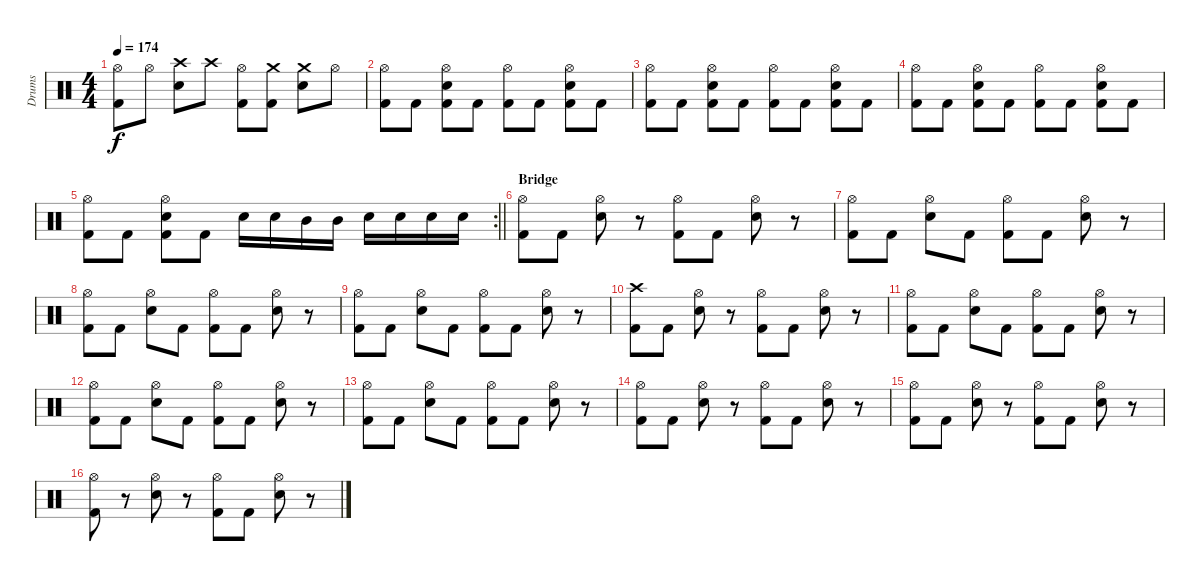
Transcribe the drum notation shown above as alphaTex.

\track ("Drums" "Drums") {instrument percussion}
\staff {score}
\articulation defaults
\ts (4 4)
\tempo 174
\clef neutral
\ks c
("Hi-Hat (open)" "Kick (hit) 2").8{dy f} "Hi-Hat (open)".8 ("Crash high (hit)" "Electric Snare (hit)").8 "Crash high (hit)".8 ("Hi-Hat (open)" "Kick (hit) 2").8 ("Crash medium (hit)" "Kick (hit) 2").8 ("Crash medium (hit)" "Electric Snare (hit)").8 "Hi-Hat (open)".8 |
("Hi-Hat (open)" "Kick (hit) 2").8 "Kick (hit) 2".8 ("Hi-Hat (open)" "Electric Snare (hit)" "Kick (hit) 2").8 "Kick (hit) 2".8 ("Hi-Hat (open)" "Kick (hit) 2").8 "Kick (hit) 2".8 ("Hi-Hat (open)" "Electric Snare (hit)" "Kick (hit) 2").8 "Kick (hit) 2".8 |
("Hi-Hat (open)" "Kick (hit) 2").8 "Kick (hit) 2".8 ("Hi-Hat (open)" "Electric Snare (hit)" "Kick (hit) 2").8 "Kick (hit) 2".8 ("Hi-Hat (open)" "Kick (hit) 2").8 "Kick (hit) 2".8 ("Hi-Hat (open)" "Electric Snare (hit)" "Kick (hit) 2").8 "Kick (hit) 2".8 |
("Hi-Hat (open)" "Kick (hit) 2").8 "Kick (hit) 2".8 ("Hi-Hat (open)" "Electric Snare (hit)" "Kick (hit) 2").8 "Kick (hit) 2".8 ("Hi-Hat (open)" "Kick (hit) 2").8 "Kick (hit) 2".8 ("Hi-Hat (open)" "Electric Snare (hit)" "Kick (hit) 2").8 "Kick (hit) 2".8 |
\rc 2
\barLineRight lightlight
("Hi-Hat (open)" "Kick (hit) 2").8 "Kick (hit) 2".8 ("Hi-Hat (open)" "Electric Snare (hit)" "Kick (hit) 2").8 "Kick (hit) 2".8 "Electric Snare (hit)".16 "Electric Snare (hit)".16 "Mid Tom (hit)".16 "Mid Tom (hit)".16 "Electric Snare (hit)".16 "Electric Snare (hit)".16 "Electric Snare (hit)".16 "Electric Snare (hit)".16 |
\section ("" "Bridge")
("Hi-Hat (open)" "Kick (hit) 2").8 "Kick (hit) 2".8 ("Hi-Hat (open)" "Electric Snare (hit)").8 r.8 ("Hi-Hat (open)" "Kick (hit) 2").8 "Kick (hit) 2".8 ("Hi-Hat (open)" "Electric Snare (hit)").8 r.8 |
("Hi-Hat (open)" "Kick (hit) 2").8 "Kick (hit) 2".8 ("Hi-Hat (open)" "Electric Snare (hit)").8 "Kick (hit) 2".8 ("Hi-Hat (open)" "Kick (hit) 2").8 "Kick (hit) 2".8 ("Hi-Hat (open)" "Electric Snare (hit)").8 r.8 |
("Hi-Hat (open)" "Kick (hit) 2").8 "Kick (hit) 2".8 ("Hi-Hat (open)" "Electric Snare (hit)").8 "Kick (hit) 2".8 ("Hi-Hat (open)" "Kick (hit) 2").8 "Kick (hit) 2".8 ("Hi-Hat (open)" "Electric Snare (hit)").8 r.8 |
("Hi-Hat (open)" "Kick (hit) 2").8 "Kick (hit) 2".8 ("Hi-Hat (open)" "Electric Snare (hit)").8 "Kick (hit) 2".8 ("Hi-Hat (open)" "Kick (hit) 2").8 "Kick (hit) 2".8 ("Hi-Hat (open)" "Electric Snare (hit)").8 r.8 |
("Crash high (hit)" "Kick (hit) 2").8 "Kick (hit) 2".8 ("Hi-Hat (open)" "Electric Snare (hit)").8 r.8 ("Hi-Hat (open)" "Kick (hit) 2").8 "Kick (hit) 2".8 ("Hi-Hat (open)" "Electric Snare (hit)").8 r.8 |
("Hi-Hat (open)" "Kick (hit) 2").8 "Kick (hit) 2".8 ("Hi-Hat (open)" "Electric Snare (hit)").8 "Kick (hit) 2".8 ("Hi-Hat (open)" "Kick (hit) 2").8 "Kick (hit) 2".8 ("Hi-Hat (open)" "Electric Snare (hit)").8 r.8 |
("Hi-Hat (open)" "Kick (hit) 2").8 "Kick (hit) 2".8 ("Hi-Hat (open)" "Electric Snare (hit)").8 "Kick (hit) 2".8 ("Hi-Hat (open)" "Kick (hit) 2").8 "Kick (hit) 2".8 ("Hi-Hat (open)" "Electric Snare (hit)").8 r.8 |
("Hi-Hat (open)" "Kick (hit) 2").8 "Kick (hit) 2".8 ("Hi-Hat (open)" "Electric Snare (hit)").8 "Kick (hit) 2".8 ("Hi-Hat (open)" "Kick (hit) 2").8 "Kick (hit) 2".8 ("Hi-Hat (open)" "Electric Snare (hit)").8 r.8 |
("Hi-Hat (open)" "Kick (hit) 2").8 "Kick (hit) 2".8 ("Hi-Hat (open)" "Electric Snare (hit)").8 r.8 ("Hi-Hat (open)" "Kick (hit) 2").8 "Kick (hit) 2".8 ("Hi-Hat (open)" "Electric Snare (hit)").8 r.8 |
("Hi-Hat (open)" "Kick (hit) 2").8 "Kick (hit) 2".8 ("Hi-Hat (open)" "Electric Snare (hit)").8 r.8 ("Hi-Hat (open)" "Kick (hit) 2").8 "Kick (hit) 2".8 ("Hi-Hat (open)" "Electric Snare (hit)").8 r.8 |
("Hi-Hat (open)" "Kick (hit) 2").8 r.8 ("Hi-Hat (open)" "Electric Snare (hit)").8 r.8 ("Hi-Hat (open)" "Kick (hit) 2").8 "Kick (hit) 2".8 ("Hi-Hat (open)" "Electric Snare (hit)").8 r.8
